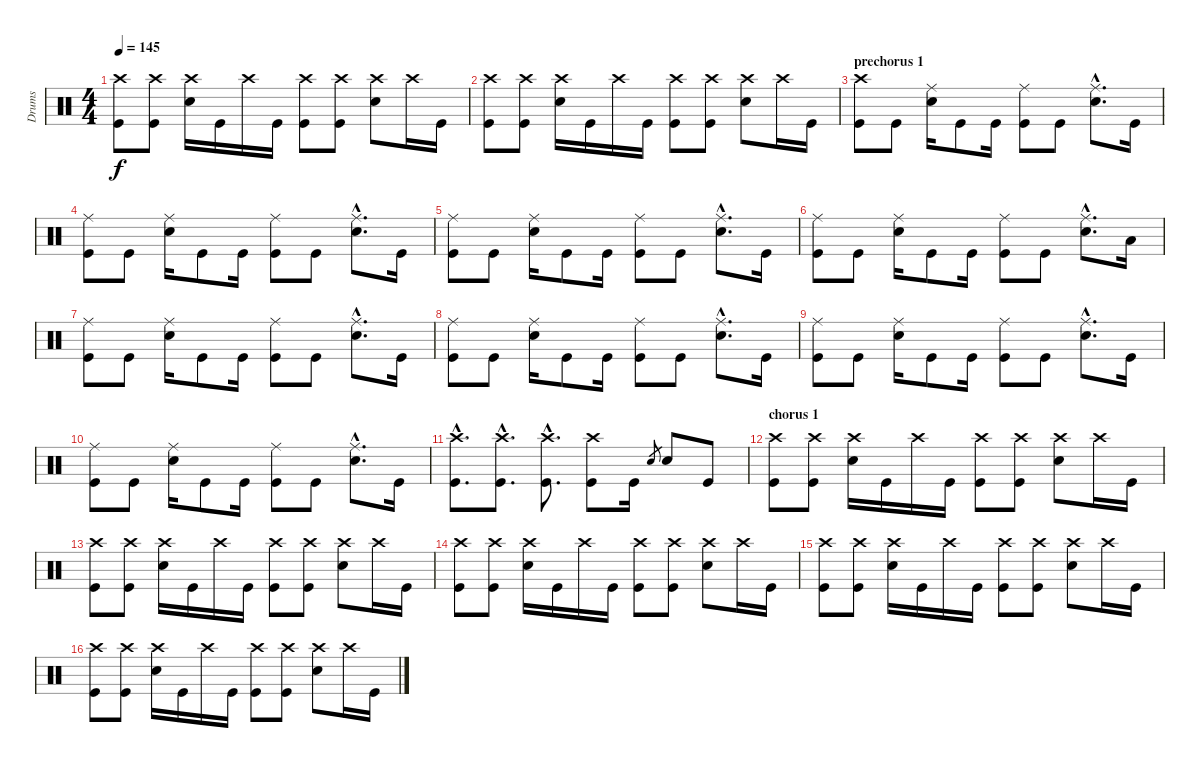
\track ("Drums" "Drums") {instrument percussion}
\staff {score}
\articulation defaults
\ts (4 4)
\tempo 145
\clef neutral
\ks c
("Crash high (hit)" "Kick (hit)").8{dy f} ("Crash high (hit)" "Kick (hit)").8 ("Crash high (hit)" "Electric Snare (hit)").16 "Kick (hit)".16 "Crash high (hit)".16 "Kick (hit)".16 ("Crash high (hit)" "Kick (hit)").8 ("Crash high (hit)" "Kick (hit)").8 ("Crash high (hit)" "Electric Snare (hit)").8 "Crash high (hit)".16 "Kick (hit)".16 |
("Crash high (hit)" "Kick (hit)").8 ("Crash high (hit)" "Kick (hit)").8 ("Crash high (hit)" "Electric Snare (hit)").16 "Kick (hit)".16 "Crash high (hit)".16 "Kick (hit)".16 ("Crash high (hit)" "Kick (hit)").8 ("Crash high (hit)" "Kick (hit)").8 ("Crash high (hit)" "Electric Snare (hit)").8 "Crash high (hit)".16 "Kick (hit)".16 |
\section ("" "prechorus 1")
("Crash high (hit)" "Kick (hit)").8 "Kick (hit)".8 ("Ride (middle)" "Electric Snare (hit)").16 "Kick (hit)".8 "Kick (hit)".16 ("Ride (middle)" "Kick (hit)").8 "Kick (hit)".8 ("Ride (middle)"{hac} "Electric Snare (hit)"{hac}).8{d} "Kick (hit)".16 |
("Ride (middle)" "Kick (hit)").8 "Kick (hit)".8 ("Ride (middle)" "Electric Snare (hit)").16 "Kick (hit)".8 "Kick (hit)".16 ("Ride (middle)" "Kick (hit)").8 "Kick (hit)".8 ("Ride (middle)"{hac} "Electric Snare (hit)"{hac}).8{d} "Kick (hit)".16 |
("Ride (middle)" "Kick (hit)").8 "Kick (hit)".8 ("Ride (middle)" "Electric Snare (hit)").16 "Kick (hit)".8 "Kick (hit)".16 ("Ride (middle)" "Kick (hit)").8 "Kick (hit)".8 ("Ride (middle)"{hac} "Electric Snare (hit)"{hac}).8{d} "Kick (hit)".16 |
("Ride (middle)" "Kick (hit)").8 "Kick (hit)".8 ("Ride (middle)" "Electric Snare (hit)").16 "Kick (hit)".8 "Kick (hit)".16 ("Ride (middle)" "Kick (hit)").8 "Kick (hit)".8 ("Ride (middle)"{hac} "Electric Snare (hit)"{hac}).8{d} "Low Tom (hit)".16 |
("Ride (middle)" "Kick (hit)").8 "Kick (hit)".8 ("Ride (middle)" "Electric Snare (hit)").16 "Kick (hit)".8 "Kick (hit)".16 ("Ride (middle)" "Kick (hit)").8 "Kick (hit)".8 ("Ride (middle)"{hac} "Electric Snare (hit)"{hac}).8{d} "Kick (hit)".16 |
("Ride (middle)" "Kick (hit)").8 "Kick (hit)".8 ("Ride (middle)" "Electric Snare (hit)").16 "Kick (hit)".8 "Kick (hit)".16 ("Ride (middle)" "Kick (hit)").8 "Kick (hit)".8 ("Ride (middle)"{hac} "Electric Snare (hit)"{hac}).8{d} "Kick (hit)".16 |
("Ride (middle)" "Kick (hit)").8 "Kick (hit)".8 ("Ride (middle)" "Electric Snare (hit)").16 "Kick (hit)".8 "Kick (hit)".16 ("Ride (middle)" "Kick (hit)").8 "Kick (hit)".8 ("Ride (middle)"{hac} "Electric Snare (hit)"{hac}).8{d} "Kick (hit)".16 |
("Ride (middle)" "Kick (hit)").8 "Kick (hit)".8 ("Ride (middle)" "Electric Snare (hit)").16 "Kick (hit)".8 "Kick (hit)".16 ("Ride (middle)" "Kick (hit)").8 "Kick (hit)".8 ("Ride (middle)"{hac} "Electric Snare (hit)"{hac}).8{d} "Kick (hit)".16 |
("Crash high (hit)"{hac} "Kick (hit)"{hac}).8{d} ("Crash high (hit)"{hac} "Kick (hit)"{hac}).8{d} ("Crash high (hit)"{hac} "Kick (hit)"{hac}).8{d} ("Crash high (hit)" "Kick (hit)").8 "Kick (hit)".16 "Electric Snare (hit)".8{gr} "Electric Snare (hit)".8 "Kick (hit)".8 |
\section ("" "chorus 1")
("Crash high (hit)" "Kick (hit)").8 ("Crash high (hit)" "Kick (hit)").8 ("Crash high (hit)" "Electric Snare (hit)").16 "Kick (hit)".16 "Crash high (hit)".16 "Kick (hit)".16 ("Crash high (hit)" "Kick (hit)").8 ("Crash high (hit)" "Kick (hit)").8 ("Crash high (hit)" "Electric Snare (hit)").8 "Crash high (hit)".16 "Kick (hit)".16 |
("Crash high (hit)" "Kick (hit)").8 ("Crash high (hit)" "Kick (hit)").8 ("Crash high (hit)" "Electric Snare (hit)").16 "Kick (hit)".16 "Crash high (hit)".16 "Kick (hit)".16 ("Crash high (hit)" "Kick (hit)").8 ("Crash high (hit)" "Kick (hit)").8 ("Crash high (hit)" "Electric Snare (hit)").8 "Crash high (hit)".16 "Kick (hit)".16 |
("Crash high (hit)" "Kick (hit)").8 ("Crash high (hit)" "Kick (hit)").8 ("Crash high (hit)" "Electric Snare (hit)").16 "Kick (hit)".16 "Crash high (hit)".16 "Kick (hit)".16 ("Crash high (hit)" "Kick (hit)").8 ("Crash high (hit)" "Kick (hit)").8 ("Crash high (hit)" "Electric Snare (hit)").8 "Crash high (hit)".16 "Kick (hit)".16 |
("Crash high (hit)" "Kick (hit)").8 ("Crash high (hit)" "Kick (hit)").8 ("Crash high (hit)" "Electric Snare (hit)").16 "Kick (hit)".16 "Crash high (hit)".16 "Kick (hit)".16 ("Crash high (hit)" "Kick (hit)").8 ("Crash high (hit)" "Kick (hit)").8 ("Crash high (hit)" "Electric Snare (hit)").8 "Crash high (hit)".16 "Kick (hit)".16 |
("Crash high (hit)" "Kick (hit)").8 ("Crash high (hit)" "Kick (hit)").8 ("Crash high (hit)" "Electric Snare (hit)").16 "Kick (hit)".16 "Crash high (hit)".16 "Kick (hit)".16 ("Crash high (hit)" "Kick (hit)").8 ("Crash high (hit)" "Kick (hit)").8 ("Crash high (hit)" "Electric Snare (hit)").8 "Crash high (hit)".16 "Kick (hit)".16
